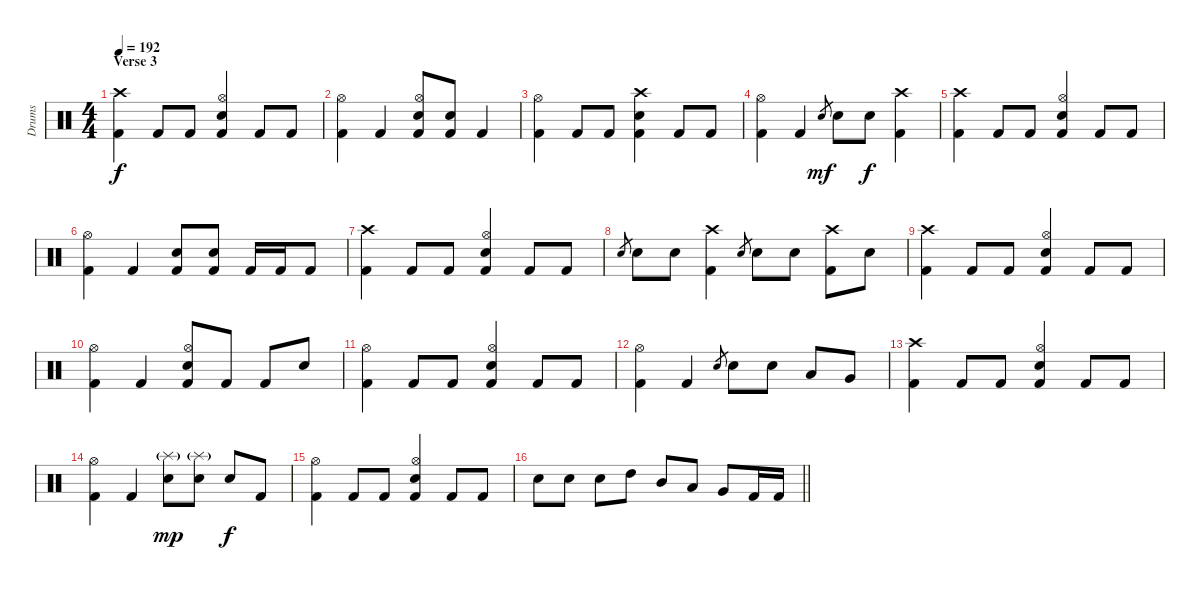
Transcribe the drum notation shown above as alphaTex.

\track ("Drums" "Drums") {instrument percussion}
\staff {score}
\articulation defaults
\ts (4 4)
\section ("" "Verse 3")
\tempo 192
\clef neutral
\ks c
("Crash high (hit)" "Kick (hit) 2").4{dy f} "Kick (hit) 2".8 "Kick (hit) 2".8 ("Hi-Hat (open)" "Snare (hit) 2" "Kick (hit) 2").4 "Kick (hit) 2".8 "Kick (hit) 2".8 |
("Hi-Hat (open)" "Kick (hit) 2").4 "Kick (hit) 2".4 ("Hi-Hat (open)" "Snare (hit) 2" "Kick (hit) 2").8 ("Snare (hit) 2" "Kick (hit) 2").8 "Kick (hit) 2".4 |
("Hi-Hat (open)" "Kick (hit) 2").4 "Kick (hit) 2".8 "Kick (hit) 2".8 ("Crash high (hit)" "Snare (hit) 2" "Kick (hit) 2").4 "Kick (hit) 2".8 "Kick (hit) 2".8 |
("Hi-Hat (open)" "Kick (hit) 2").4 "Kick (hit) 2".4 "Snare (hit) 2".8{gr dy mf} "Snare (hit) 2".8 "Snare (hit) 2".8{dy f} ("Crash high (hit)" "Kick (hit) 2").4 |
("Crash high (hit)" "Kick (hit) 2").4 "Kick (hit) 2".8 "Kick (hit) 2".8 ("Hi-Hat (open)" "Snare (hit) 2" "Kick (hit) 2").4 "Kick (hit) 2".8 "Kick (hit) 2".8 |
("Hi-Hat (open)" "Kick (hit) 2").4 "Kick (hit) 2".4 ("Snare (hit) 2" "Kick (hit) 2").8 ("Snare (hit) 2" "Kick (hit) 2").8 "Kick (hit) 2".16 "Kick (hit) 2".16 "Kick (hit) 2".8 |
("Crash high (hit)" "Kick (hit) 2").4 "Kick (hit) 2".8 "Kick (hit) 2".8 ("Hi-Hat (open)" "Snare (hit) 2" "Kick (hit) 2").4 "Kick (hit) 2".8 "Kick (hit) 2".8 |
"Snare (hit) 2".8{gr} "Snare (hit) 2".8 "Snare (hit) 2".8 ("Crash high (hit)" "Kick (hit) 2").4 "Snare (hit) 2".8{gr} "Snare (hit) 2".8 "Snare (hit) 2".8 ("Crash high (hit)" "Kick (hit) 2").8 "Snare (hit) 2".8 |
("Crash high (hit)" "Kick (hit) 2").4 "Kick (hit) 2".8 "Kick (hit) 2".8 ("Hi-Hat (open)" "Snare (hit) 2" "Kick (hit) 2").4 "Kick (hit) 2".8 "Kick (hit) 2".8 |
("Hi-Hat (open)" "Kick (hit) 2").4 "Kick (hit) 2".4 ("Hi-Hat (open)" "Snare (hit) 2" "Kick (hit) 2").8 "Kick (hit) 2".8 "Kick (hit) 2".8 "Snare (hit) 2".8 |
("Hi-Hat (open)" "Kick (hit) 2").4 "Kick (hit) 2".8 "Kick (hit) 2".8 ("Hi-Hat (open)" "Snare (hit) 2" "Kick (hit) 2").4 "Kick (hit) 2".8 "Kick (hit) 2".8 |
("Hi-Hat (open)" "Kick (hit) 2").4 "Kick (hit) 2".4 "Snare (hit) 2".8{gr} "Snare (hit) 2".8 "Snare (hit) 2".8 "Low Tom (hit)".8 "Very Low Tom (hit)".8 |
("Crash high (hit)" "Kick (hit) 2").4 "Kick (hit) 2".8 "Kick (hit) 2".8 ("Hi-Hat (open)" "Snare (hit) 2" "Kick (hit) 2").4 "Kick (hit) 2".8 "Kick (hit) 2".8 |
("Hi-Hat (open)" "Kick (hit) 2").4 "Kick (hit) 2".4 ("Splash (hit)"{g} "Snare (hit) 2").8{dy mp} ("Splash (hit)"{g} "Snare (hit) 2").8 "Snare (hit) 2".8{dy f} "Kick (hit) 2".8 |
("Hi-Hat (open)" "Kick (hit) 2").4 "Kick (hit) 2".8 "Kick (hit) 2".8 ("Hi-Hat (open)" "Snare (hit) 2" "Kick (hit) 2").4 "Kick (hit) 2".8 "Kick (hit) 2".8 |
\barLineRight lightlight "Snare (hit) 2".8 "Snare (hit) 2".8 "Snare (hit) 2".8 "High Tom (hit)".8 "Mid Tom (hit)".8 "Low Tom (hit)".8 "Very Low Tom (hit)".8 "Kick (hit) 2".16 "Kick (hit) 2".16
